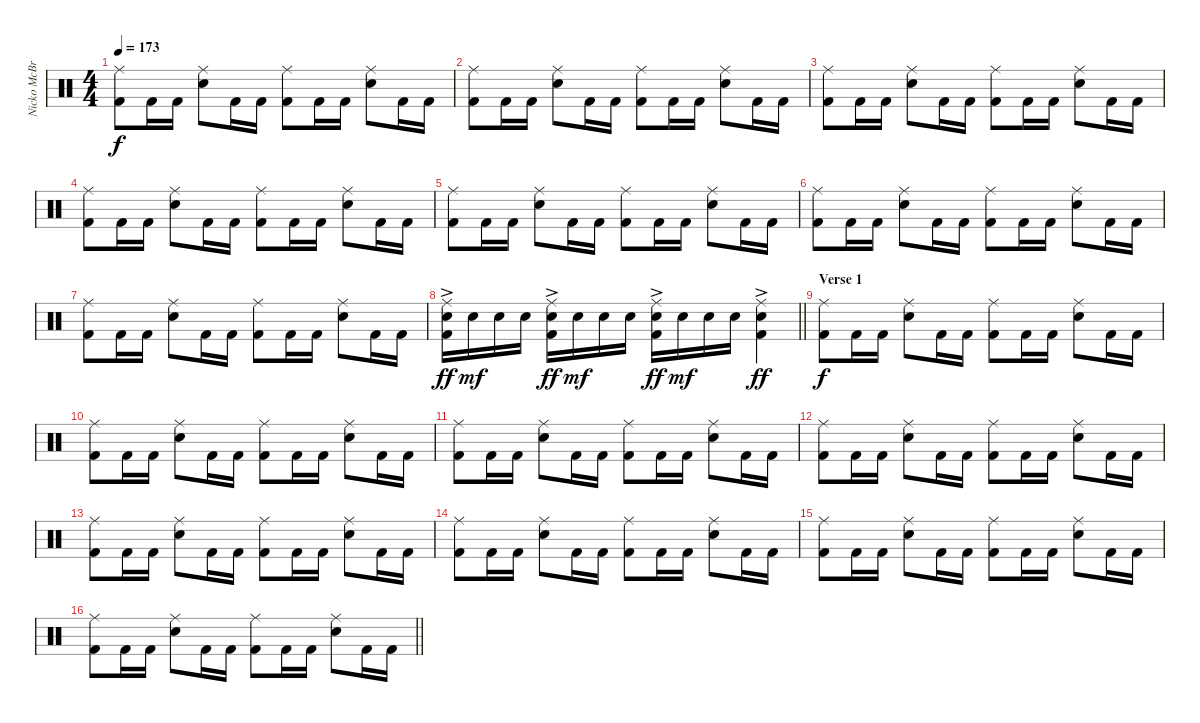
\track ("Nicko McBrain" "Nicko McBr") {instrument percussion}
\staff {score}
\articulation defaults
\ts (4 4)
\tempo 173
\clef neutral
\ks c
("Ride (middle)" "Kick (hit) 2").8{dy f} "Kick (hit) 2".16 "Kick (hit) 2".16 ("Ride (middle)" "Electric Snare (hit)").8 "Kick (hit) 2".16 "Kick (hit) 2".16 ("Ride (middle)" "Kick (hit) 2").8 "Kick (hit) 2".16 "Kick (hit) 2".16 ("Ride (middle)" "Electric Snare (hit)").8 "Kick (hit) 2".16 "Kick (hit) 2".16 |
("Ride (middle)" "Kick (hit) 2").8 "Kick (hit) 2".16 "Kick (hit) 2".16 ("Ride (middle)" "Electric Snare (hit)").8 "Kick (hit) 2".16 "Kick (hit) 2".16 ("Ride (middle)" "Kick (hit) 2").8 "Kick (hit) 2".16 "Kick (hit) 2".16 ("Ride (middle)" "Electric Snare (hit)").8 "Kick (hit) 2".16 "Kick (hit) 2".16 |
("Ride (middle)" "Kick (hit) 2").8 "Kick (hit) 2".16 "Kick (hit) 2".16 ("Ride (middle)" "Electric Snare (hit)").8 "Kick (hit) 2".16 "Kick (hit) 2".16 ("Ride (middle)" "Kick (hit) 2").8 "Kick (hit) 2".16 "Kick (hit) 2".16 ("Ride (middle)" "Electric Snare (hit)").8 "Kick (hit) 2".16 "Kick (hit) 2".16 |
("Ride (middle)" "Kick (hit) 2").8 "Kick (hit) 2".16 "Kick (hit) 2".16 ("Ride (middle)" "Electric Snare (hit)").8 "Kick (hit) 2".16 "Kick (hit) 2".16 ("Ride (middle)" "Kick (hit) 2").8 "Kick (hit) 2".16 "Kick (hit) 2".16 ("Ride (middle)" "Electric Snare (hit)").8 "Kick (hit) 2".16 "Kick (hit) 2".16 |
("Ride (middle)" "Kick (hit) 2").8 "Kick (hit) 2".16 "Kick (hit) 2".16 ("Ride (middle)" "Electric Snare (hit)").8 "Kick (hit) 2".16 "Kick (hit) 2".16 ("Ride (middle)" "Kick (hit) 2").8 "Kick (hit) 2".16 "Kick (hit) 2".16 ("Ride (middle)" "Electric Snare (hit)").8 "Kick (hit) 2".16 "Kick (hit) 2".16 |
("Ride (middle)" "Kick (hit) 2").8 "Kick (hit) 2".16 "Kick (hit) 2".16 ("Ride (middle)" "Electric Snare (hit)").8 "Kick (hit) 2".16 "Kick (hit) 2".16 ("Ride (middle)" "Kick (hit) 2").8 "Kick (hit) 2".16 "Kick (hit) 2".16 ("Ride (middle)" "Electric Snare (hit)").8 "Kick (hit) 2".16 "Kick (hit) 2".16 |
("Ride (middle)" "Kick (hit) 2").8 "Kick (hit) 2".16 "Kick (hit) 2".16 ("Ride (middle)" "Electric Snare (hit)").8 "Kick (hit) 2".16 "Kick (hit) 2".16 ("Ride (middle)" "Kick (hit) 2").8 "Kick (hit) 2".16 "Kick (hit) 2".16 ("Ride (middle)" "Electric Snare (hit)").8 "Kick (hit) 2".16 "Kick (hit) 2".16 |
\barLineRight lightlight
("Ride (middle)" "Electric Snare (hit)"{ac} "Kick (hit) 2").16{dy ff} "Electric Snare (hit)".16{dy mf} "Electric Snare (hit)".16 "Electric Snare (hit)".16 ("Ride (middle)" "Electric Snare (hit)"{ac} "Kick (hit) 2").16{dy ff} "Electric Snare (hit)".16{dy mf} "Electric Snare (hit)".16 "Electric Snare (hit)".16 ("Ride (middle)" "Electric Snare (hit)"{ac} "Kick (hit) 2").16{dy ff} "Electric Snare (hit)".16{dy mf} "Electric Snare (hit)".16 "Electric Snare (hit)".16 ("Ride (middle)" "Electric Snare (hit)"{ac} "Kick (hit) 2").4{dy ff} |
\section ("" "Verse 1")
("Ride (middle)" "Kick (hit) 2").8{dy f} "Kick (hit) 2".16 "Kick (hit) 2".16 ("Ride (middle)" "Electric Snare (hit)").8 "Kick (hit) 2".16 "Kick (hit) 2".16 ("Ride (middle)" "Kick (hit) 2").8 "Kick (hit) 2".16 "Kick (hit) 2".16 ("Ride (middle)" "Electric Snare (hit)").8 "Kick (hit) 2".16 "Kick (hit) 2".16 |
("Ride (middle)" "Kick (hit) 2").8 "Kick (hit) 2".16 "Kick (hit) 2".16 ("Ride (middle)" "Electric Snare (hit)").8 "Kick (hit) 2".16 "Kick (hit) 2".16 ("Ride (middle)" "Kick (hit) 2").8 "Kick (hit) 2".16 "Kick (hit) 2".16 ("Ride (middle)" "Electric Snare (hit)").8 "Kick (hit) 2".16 "Kick (hit) 2".16 |
("Ride (middle)" "Kick (hit) 2").8 "Kick (hit) 2".16 "Kick (hit) 2".16 ("Ride (middle)" "Electric Snare (hit)").8 "Kick (hit) 2".16 "Kick (hit) 2".16 ("Ride (middle)" "Kick (hit) 2").8 "Kick (hit) 2".16 "Kick (hit) 2".16 ("Ride (middle)" "Electric Snare (hit)").8 "Kick (hit) 2".16 "Kick (hit) 2".16 |
("Ride (middle)" "Kick (hit) 2").8 "Kick (hit) 2".16 "Kick (hit) 2".16 ("Ride (middle)" "Electric Snare (hit)").8 "Kick (hit) 2".16 "Kick (hit) 2".16 ("Ride (middle)" "Kick (hit) 2").8 "Kick (hit) 2".16 "Kick (hit) 2".16 ("Ride (middle)" "Electric Snare (hit)").8 "Kick (hit) 2".16 "Kick (hit) 2".16 |
("Ride (middle)" "Kick (hit) 2").8 "Kick (hit) 2".16 "Kick (hit) 2".16 ("Ride (middle)" "Electric Snare (hit)").8 "Kick (hit) 2".16 "Kick (hit) 2".16 ("Ride (middle)" "Kick (hit) 2").8 "Kick (hit) 2".16 "Kick (hit) 2".16 ("Ride (middle)" "Electric Snare (hit)").8 "Kick (hit) 2".16 "Kick (hit) 2".16 |
("Ride (middle)" "Kick (hit) 2").8 "Kick (hit) 2".16 "Kick (hit) 2".16 ("Ride (middle)" "Electric Snare (hit)").8 "Kick (hit) 2".16 "Kick (hit) 2".16 ("Ride (middle)" "Kick (hit) 2").8 "Kick (hit) 2".16 "Kick (hit) 2".16 ("Ride (middle)" "Electric Snare (hit)").8 "Kick (hit) 2".16 "Kick (hit) 2".16 |
("Ride (middle)" "Kick (hit) 2").8 "Kick (hit) 2".16 "Kick (hit) 2".16 ("Ride (middle)" "Electric Snare (hit)").8 "Kick (hit) 2".16 "Kick (hit) 2".16 ("Ride (middle)" "Kick (hit) 2").8 "Kick (hit) 2".16 "Kick (hit) 2".16 ("Ride (middle)" "Electric Snare (hit)").8 "Kick (hit) 2".16 "Kick (hit) 2".16 |
\barLineRight lightlight
("Ride (middle)" "Kick (hit) 2").8 "Kick (hit) 2".16 "Kick (hit) 2".16 ("Ride (middle)" "Electric Snare (hit)").8 "Kick (hit) 2".16 "Kick (hit) 2".16 ("Ride (middle)" "Kick (hit) 2").8 "Kick (hit) 2".16 "Kick (hit) 2".16 ("Ride (middle)" "Electric Snare (hit)").8 "Kick (hit) 2".16 "Kick (hit) 2".16
